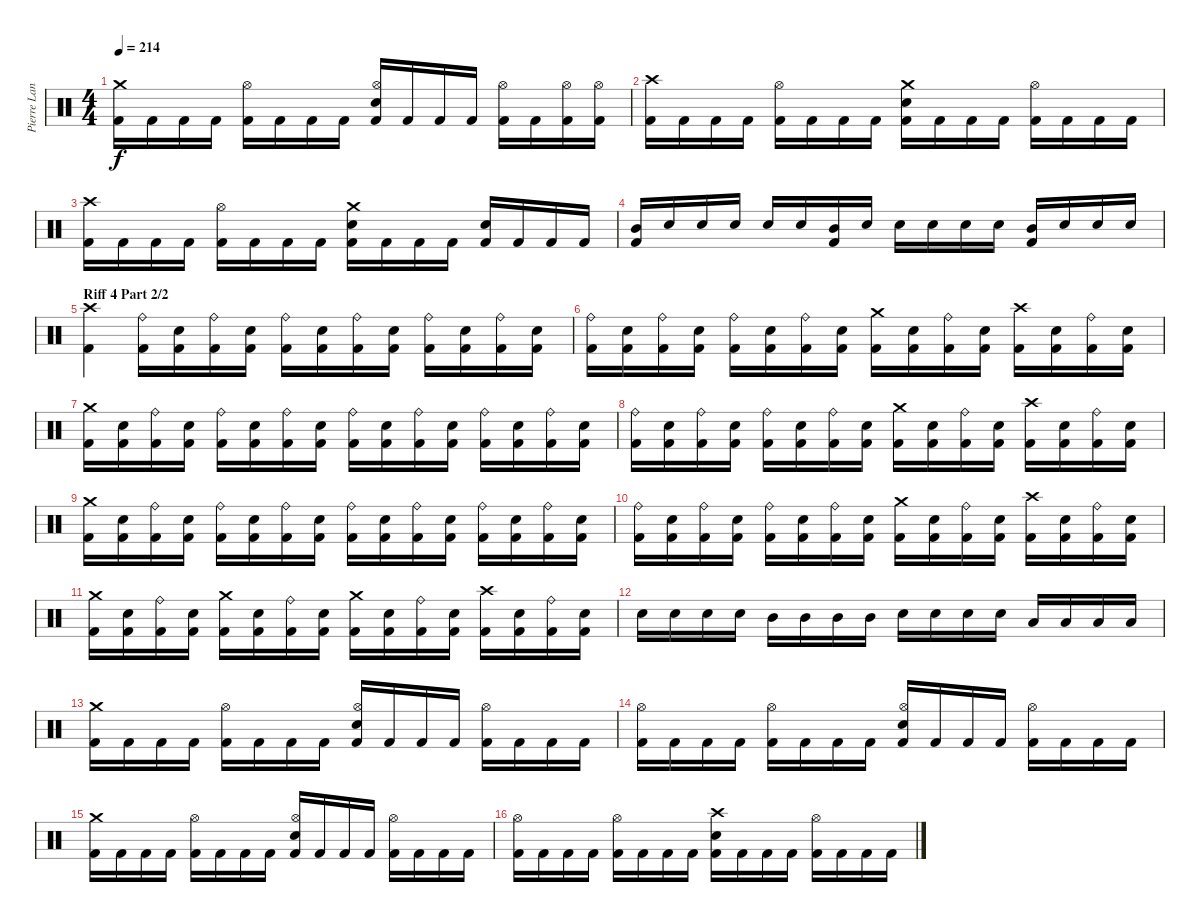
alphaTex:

\track ("Pierre Langlois (Drums)" "Pierre Lan") {instrument percussion}
\staff {score}
\articulation defaults
\ts (4 4)
\tempo 214
\clef neutral
\ks c
("Crash medium (hit)" "Kick (hit) 2").16{dy f} "Kick (hit) 2".16 "Kick (hit) 2".16 "Kick (hit) 2".16 ("Hi-Hat (open)" "Kick (hit) 2").16 "Kick (hit) 2".16 "Kick (hit) 2".16 "Kick (hit) 2".16 ("Hi-Hat (open)" "Snare (hit) 2" "Kick (hit) 2").16 "Kick (hit) 2".16 "Kick (hit) 2".16 "Kick (hit) 2".16 ("Hi-Hat (open)" "Kick (hit) 2").16 "Kick (hit) 2".16 ("Hi-Hat (open)" "Kick (hit) 2").16 ("Hi-Hat (open)" "Kick (hit) 2").16 |
("Crash high (hit)" "Kick (hit) 2").16 "Kick (hit) 2".16 "Kick (hit) 2".16 "Kick (hit) 2".16 ("Hi-Hat (open)" "Kick (hit) 2").16 "Kick (hit) 2".16 "Kick (hit) 2".16 "Kick (hit) 2".16 ("Crash medium (hit)" "Snare (hit) 2" "Kick (hit) 2").16 "Kick (hit) 2".16 "Kick (hit) 2".16 "Kick (hit) 2".16 ("Hi-Hat (open)" "Kick (hit) 2").16 "Kick (hit) 2".16 "Kick (hit) 2".16 "Kick (hit) 2".16 |
("Crash high (hit)" "Kick (hit) 2").16 "Kick (hit) 2".16 "Kick (hit) 2".16 "Kick (hit) 2".16 ("Hi-Hat (open)" "Kick (hit) 2").16 "Kick (hit) 2".16 "Kick (hit) 2".16 "Kick (hit) 2".16 ("Crash medium (hit)" "Snare (hit) 2" "Kick (hit) 2").16 "Kick (hit) 2".16 "Kick (hit) 2".16 "Kick (hit) 2".16 ("Snare (hit) 2" "Kick (hit) 2").16 "Kick (hit) 2".16 "Kick (hit) 2".16 "Kick (hit) 2".16 |
("Mid Tom (hit)" "Kick (hit) 2").16 "Snare (hit) 2".16 "Snare (hit) 2".16 "Snare (hit) 2".16 "Snare (hit) 2".16 "Snare (hit) 2".16 ("Mid Tom (hit)" "Kick (hit) 2").16 "Snare (hit) 2".16 "Snare (hit) 2".16 "Snare (hit) 2".16 "Snare (hit) 2".16 "Snare (hit) 2".16 ("Mid Tom (hit)" "Kick (hit) 2").16 "Snare (hit) 2".16 "Snare (hit) 2".16 "Snare (hit) 2".16 |
\section ("" "Riff 4 Part 2/2")
("Crash high (hit)" "Kick (hit) 2").4 ("Ride (bell)" "Kick (hit) 2").16 ("Snare (hit) 2" "Kick (hit) 2").16 ("Ride (bell)" "Kick (hit) 2").16 ("Snare (hit) 2" "Kick (hit) 2").16 ("Ride (bell)" "Kick (hit) 2").16 ("Snare (hit) 2" "Kick (hit) 2").16 ("Ride (bell)" "Kick (hit) 2").16 ("Snare (hit) 2" "Kick (hit) 2").16 ("Ride (bell)" "Kick (hit) 2").16 ("Snare (hit) 2" "Kick (hit) 2").16 ("Ride (bell)" "Kick (hit) 2").16 ("Snare (hit) 2" "Kick (hit) 2").16 |
("Ride (bell)" "Kick (hit) 2").16 ("Snare (hit) 2" "Kick (hit) 2").16 ("Ride (bell)" "Kick (hit) 2").16 ("Snare (hit) 2" "Kick (hit) 2").16 ("Ride (bell)" "Kick (hit) 2").16 ("Snare (hit) 2" "Kick (hit) 2").16 ("Ride (bell)" "Kick (hit) 2").16 ("Snare (hit) 2" "Kick (hit) 2").16 ("Crash medium (hit)" "Kick (hit) 2").16 ("Snare (hit) 2" "Kick (hit) 2").16 ("Ride (bell)" "Kick (hit) 2").16 ("Snare (hit) 2" "Kick (hit) 2").16 ("Crash high (hit)" "Kick (hit) 2").16 ("Snare (hit) 2" "Kick (hit) 2").16 ("Ride (bell)" "Kick (hit) 2").16 ("Snare (hit) 2" "Kick (hit) 2").16 |
("Crash medium (hit)" "Kick (hit) 2").16 ("Snare (hit) 2" "Kick (hit) 2").16 ("Ride (bell)" "Kick (hit) 2").16 ("Snare (hit) 2" "Kick (hit) 2").16 ("Ride (bell)" "Kick (hit) 2").16 ("Snare (hit) 2" "Kick (hit) 2").16 ("Ride (bell)" "Kick (hit) 2").16 ("Snare (hit) 2" "Kick (hit) 2").16 ("Ride (bell)" "Kick (hit) 2").16 ("Snare (hit) 2" "Kick (hit) 2").16 ("Ride (bell)" "Kick (hit) 2").16 ("Snare (hit) 2" "Kick (hit) 2").16 ("Ride (bell)" "Kick (hit) 2").16 ("Snare (hit) 2" "Kick (hit) 2").16 ("Ride (bell)" "Kick (hit) 2").16 ("Snare (hit) 2" "Kick (hit) 2").16 |
("Ride (bell)" "Kick (hit) 2").16 ("Snare (hit) 2" "Kick (hit) 2").16 ("Ride (bell)" "Kick (hit) 2").16 ("Snare (hit) 2" "Kick (hit) 2").16 ("Ride (bell)" "Kick (hit) 2").16 ("Snare (hit) 2" "Kick (hit) 2").16 ("Ride (bell)" "Kick (hit) 2").16 ("Snare (hit) 2" "Kick (hit) 2").16 ("Crash medium (hit)" "Kick (hit) 2").16 ("Snare (hit) 2" "Kick (hit) 2").16 ("Ride (bell)" "Kick (hit) 2").16 ("Snare (hit) 2" "Kick (hit) 2").16 ("Crash high (hit)" "Kick (hit) 2").16 ("Snare (hit) 2" "Kick (hit) 2").16 ("Ride (bell)" "Kick (hit) 2").16 ("Snare (hit) 2" "Kick (hit) 2").16 |
("Crash medium (hit)" "Kick (hit) 2").16 ("Snare (hit) 2" "Kick (hit) 2").16 ("Ride (bell)" "Kick (hit) 2").16 ("Snare (hit) 2" "Kick (hit) 2").16 ("Ride (bell)" "Kick (hit) 2").16 ("Snare (hit) 2" "Kick (hit) 2").16 ("Ride (bell)" "Kick (hit) 2").16 ("Snare (hit) 2" "Kick (hit) 2").16 ("Ride (bell)" "Kick (hit) 2").16 ("Snare (hit) 2" "Kick (hit) 2").16 ("Ride (bell)" "Kick (hit) 2").16 ("Snare (hit) 2" "Kick (hit) 2").16 ("Ride (bell)" "Kick (hit) 2").16 ("Snare (hit) 2" "Kick (hit) 2").16 ("Ride (bell)" "Kick (hit) 2").16 ("Snare (hit) 2" "Kick (hit) 2").16 |
("Ride (bell)" "Kick (hit) 2").16 ("Snare (hit) 2" "Kick (hit) 2").16 ("Ride (bell)" "Kick (hit) 2").16 ("Snare (hit) 2" "Kick (hit) 2").16 ("Ride (bell)" "Kick (hit) 2").16 ("Snare (hit) 2" "Kick (hit) 2").16 ("Ride (bell)" "Kick (hit) 2").16 ("Snare (hit) 2" "Kick (hit) 2").16 ("Crash medium (hit)" "Kick (hit) 2").16 ("Snare (hit) 2" "Kick (hit) 2").16 ("Ride (bell)" "Kick (hit) 2").16 ("Snare (hit) 2" "Kick (hit) 2").16 ("Crash high (hit)" "Kick (hit) 2").16 ("Snare (hit) 2" "Kick (hit) 2").16 ("Ride (bell)" "Kick (hit) 2").16 ("Snare (hit) 2" "Kick (hit) 2").16 |
("Crash medium (hit)" "Kick (hit) 2").16 ("Snare (hit) 2" "Kick (hit) 2").16 ("Ride (bell)" "Kick (hit) 2").16 ("Snare (hit) 2" "Kick (hit) 2").16 ("Crash medium (hit)" "Kick (hit) 2").16 ("Snare (hit) 2" "Kick (hit) 2").16 ("Ride (bell)" "Kick (hit) 2").16 ("Snare (hit) 2" "Kick (hit) 2").16 ("Crash medium (hit)" "Kick (hit) 2").16 ("Snare (hit) 2" "Kick (hit) 2").16 ("Ride (bell)" "Kick (hit) 2").16 ("Snare (hit) 2" "Kick (hit) 2").16 ("Crash high (hit)" "Kick (hit) 2").16 ("Snare (hit) 2" "Kick (hit) 2").16 ("Ride (bell)" "Kick (hit) 2").16 ("Snare (hit) 2" "Kick (hit) 2").16 |
"Snare (hit) 2".16 "Snare (hit) 2".16 "Snare (hit) 2".16 "Snare (hit) 2".16 "Mid Tom (hit)".16 "Mid Tom (hit)".16 "Mid Tom (hit)".16 "Mid Tom (hit)".16 "Snare (hit) 2".16 "Snare (hit) 2".16 "Snare (hit) 2".16 "Snare (hit) 2".16 "Low Tom (hit)".16 "Low Tom (hit)".16 "Low Tom (hit)".16 "Low Tom (hit)".16 |
("Crash medium (hit)" "Kick (hit) 2").16 "Kick (hit) 2".16 "Kick (hit) 2".16 "Kick (hit) 2".16 ("Hi-Hat (open)" "Kick (hit) 2").16 "Kick (hit) 2".16 "Kick (hit) 2".16 "Kick (hit) 2".16 ("Hi-Hat (open)" "Snare (hit) 2" "Kick (hit) 2").16 "Kick (hit) 2".16 "Kick (hit) 2".16 "Kick (hit) 2".16 ("Hi-Hat (open)" "Kick (hit) 2").16 "Kick (hit) 2".16 "Kick (hit) 2".16 "Kick (hit) 2".16 |
("Hi-Hat (open)" "Kick (hit) 2").16 "Kick (hit) 2".16 "Kick (hit) 2".16 "Kick (hit) 2".16 ("Hi-Hat (open)" "Kick (hit) 2").16 "Kick (hit) 2".16 "Kick (hit) 2".16 "Kick (hit) 2".16 ("Hi-Hat (open)" "Snare (hit) 2" "Kick (hit) 2").16 "Kick (hit) 2".16 "Kick (hit) 2".16 "Kick (hit) 2".16 ("Hi-Hat (open)" "Kick (hit) 2").16 "Kick (hit) 2".16 "Kick (hit) 2".16 "Kick (hit) 2".16 |
("Crash medium (hit)" "Kick (hit) 2").16 "Kick (hit) 2".16 "Kick (hit) 2".16 "Kick (hit) 2".16 ("Hi-Hat (open)" "Kick (hit) 2").16 "Kick (hit) 2".16 "Kick (hit) 2".16 "Kick (hit) 2".16 ("Hi-Hat (open)" "Snare (hit) 2" "Kick (hit) 2").16 "Kick (hit) 2".16 "Kick (hit) 2".16 "Kick (hit) 2".16 ("Hi-Hat (open)" "Kick (hit) 2").16 "Kick (hit) 2".16 "Kick (hit) 2".16 "Kick (hit) 2".16 |
("Hi-Hat (open)" "Kick (hit) 2").16 "Kick (hit) 2".16 "Kick (hit) 2".16 "Kick (hit) 2".16 ("Hi-Hat (open)" "Kick (hit) 2").16 "Kick (hit) 2".16 "Kick (hit) 2".16 "Kick (hit) 2".16 ("Crash high (hit)" "Snare (hit) 2" "Kick (hit) 2").16 "Kick (hit) 2".16 "Kick (hit) 2".16 "Kick (hit) 2".16 ("Hi-Hat (open)" "Kick (hit) 2").16 "Kick (hit) 2".16 "Kick (hit) 2".16 "Kick (hit) 2".16
